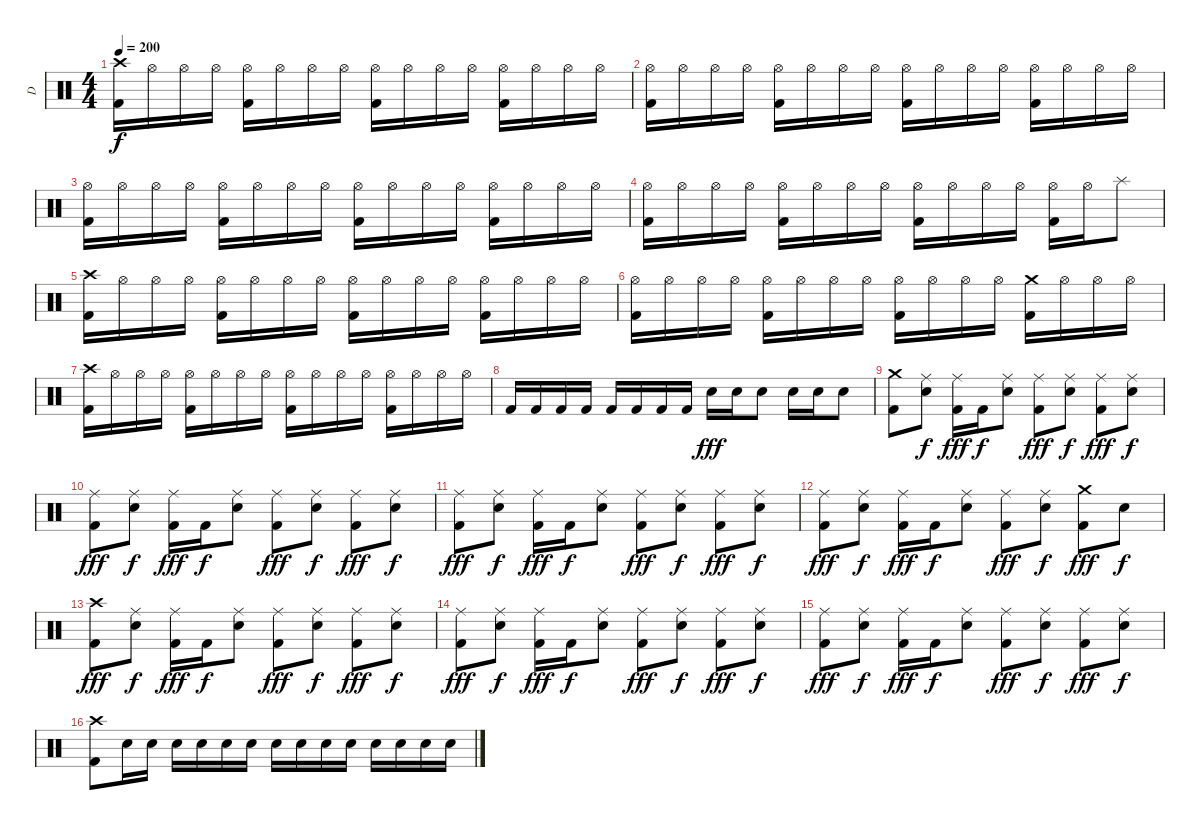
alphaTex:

\track ("D" "D") {instrument percussion}
\staff {score}
\articulation defaults
\ts (4 4)
\tempo 200
\clef neutral
\ks c
("Crash high (hit)" "Kick (hit) 2").16{dy f} "Hi-Hat (open)".16 "Hi-Hat (open)".16 "Hi-Hat (open)".16 ("Hi-Hat (open)" "Kick (hit) 2").16 "Hi-Hat (open)".16 "Hi-Hat (open)".16 "Hi-Hat (open)".16 ("Hi-Hat (open)" "Kick (hit) 2").16 "Hi-Hat (open)".16 "Hi-Hat (open)".16 "Hi-Hat (open)".16 ("Hi-Hat (open)" "Kick (hit) 2").16 "Hi-Hat (open)".16 "Hi-Hat (open)".16 "Hi-Hat (open)".16 |
("Hi-Hat (open)" "Kick (hit) 2").16 "Hi-Hat (open)".16 "Hi-Hat (open)".16 "Hi-Hat (open)".16 ("Hi-Hat (open)" "Kick (hit) 2").16 "Hi-Hat (open)".16 "Hi-Hat (open)".16 "Hi-Hat (open)".16 ("Hi-Hat (open)" "Kick (hit) 2").16 "Hi-Hat (open)".16 "Hi-Hat (open)".16 "Hi-Hat (open)".16 ("Hi-Hat (open)" "Kick (hit) 2").16 "Hi-Hat (open)".16 "Hi-Hat (open)".16 "Hi-Hat (open)".16 |
("Hi-Hat (open)" "Kick (hit) 2").16 "Hi-Hat (open)".16 "Hi-Hat (open)".16 "Hi-Hat (open)".16 ("Hi-Hat (open)" "Kick (hit) 2").16 "Hi-Hat (open)".16 "Hi-Hat (open)".16 "Hi-Hat (open)".16 ("Hi-Hat (open)" "Kick (hit) 2").16 "Hi-Hat (open)".16 "Hi-Hat (open)".16 "Hi-Hat (open)".16 ("Hi-Hat (open)" "Kick (hit) 2").16 "Hi-Hat (open)".16 "Hi-Hat (open)".16 "Hi-Hat (open)".16 |
("Hi-Hat (open)" "Kick (hit) 2").16 "Hi-Hat (open)".16 "Hi-Hat (open)".16 "Hi-Hat (open)".16 ("Hi-Hat (open)" "Kick (hit) 2").16 "Hi-Hat (open)".16 "Hi-Hat (open)".16 "Hi-Hat (open)".16 ("Hi-Hat (open)" "Kick (hit) 2").16 "Hi-Hat (open)".16 "Hi-Hat (open)".16 "Hi-Hat (open)".16 ("Hi-Hat (open)" "Kick (hit) 2").16 "Hi-Hat (open)".16 "Splash (hit)".8 |
("Crash high (hit)" "Kick (hit) 2").16 "Hi-Hat (open)".16 "Hi-Hat (open)".16 "Hi-Hat (open)".16 ("Hi-Hat (open)" "Kick (hit) 2").16 "Hi-Hat (open)".16 "Hi-Hat (open)".16 "Hi-Hat (open)".16 ("Hi-Hat (open)" "Kick (hit) 2").16 "Hi-Hat (open)".16 "Hi-Hat (open)".16 "Hi-Hat (open)".16 ("Hi-Hat (open)" "Kick (hit) 2").16 "Hi-Hat (open)".16 "Hi-Hat (open)".16 "Hi-Hat (open)".16 |
("Hi-Hat (open)" "Kick (hit) 2").16 "Hi-Hat (open)".16 "Hi-Hat (open)".16 "Hi-Hat (open)".16 ("Hi-Hat (open)" "Kick (hit) 2").16 "Hi-Hat (open)".16 "Hi-Hat (open)".16 "Hi-Hat (open)".16 ("Hi-Hat (open)" "Kick (hit) 2").16 "Hi-Hat (open)".16 "Hi-Hat (open)".16 "Hi-Hat (open)".16 ("Crash medium (hit)" "Kick (hit) 2").16 "Hi-Hat (open)".16 "Hi-Hat (open)".16 "Hi-Hat (open)".16 |
("Crash high (hit)" "Kick (hit) 2").16 "Hi-Hat (open)".16 "Hi-Hat (open)".16 "Hi-Hat (open)".16 ("Hi-Hat (open)" "Kick (hit) 2").16 "Hi-Hat (open)".16 "Hi-Hat (open)".16 "Hi-Hat (open)".16 ("Hi-Hat (open)" "Kick (hit) 2").16 "Hi-Hat (open)".16 "Hi-Hat (open)".16 "Hi-Hat (open)".16 ("Hi-Hat (open)" "Kick (hit) 2").16 "Hi-Hat (open)".16 "Hi-Hat (open)".16 "Hi-Hat (open)".16 |
"Kick (hit) 2".16 "Kick (hit) 2".16 "Kick (hit) 2".16 "Kick (hit) 2".16 "Kick (hit) 2".16 "Kick (hit) 2".16 "Kick (hit) 2".16 "Kick (hit) 2".16 "Electric Snare (hit)".16{dy fff} "Electric Snare (hit)".16 "Electric Snare (hit)".8 "Electric Snare (hit)".16 "Electric Snare (hit)".16 "Electric Snare (hit)".8 |
("Crash medium (hit)" "Kick (hit) 2").8 ("Ride (middle)" "Electric Snare (hit)").8{dy f} ("Ride (middle)" "Kick (hit) 2").16{dy fff} "Kick (hit) 2".16{dy f} ("Ride (middle)" "Electric Snare (hit)").8 ("Ride (middle)" "Kick (hit) 2").8{dy fff} ("Ride (middle)" "Electric Snare (hit)").8{dy f} ("Ride (middle)" "Kick (hit) 2").8{dy fff} ("Ride (middle)" "Electric Snare (hit)").8{dy f} |
("Ride (middle)" "Kick (hit) 2").8{dy fff} ("Ride (middle)" "Electric Snare (hit)").8{dy f} ("Ride (middle)" "Kick (hit) 2").16{dy fff} "Kick (hit) 2".16{dy f} ("Ride (middle)" "Electric Snare (hit)").8 ("Ride (middle)" "Kick (hit) 2").8{dy fff} ("Ride (middle)" "Electric Snare (hit)").8{dy f} ("Ride (middle)" "Kick (hit) 2").8{dy fff} ("Ride (middle)" "Electric Snare (hit)").8{dy f} |
("Ride (middle)" "Kick (hit) 2").8{dy fff} ("Ride (middle)" "Electric Snare (hit)").8{dy f} ("Ride (middle)" "Kick (hit) 2").16{dy fff} "Kick (hit) 2".16{dy f} ("Ride (middle)" "Electric Snare (hit)").8 ("Ride (middle)" "Kick (hit) 2").8{dy fff} ("Ride (middle)" "Electric Snare (hit)").8{dy f} ("Ride (middle)" "Kick (hit) 2").8{dy fff} ("Ride (middle)" "Electric Snare (hit)").8{dy f} |
("Ride (middle)" "Kick (hit) 2").8{dy fff} ("Ride (middle)" "Electric Snare (hit)").8{dy f} ("Ride (middle)" "Kick (hit) 2").16{dy fff} "Kick (hit) 2".16{dy f} ("Ride (middle)" "Electric Snare (hit)").8 ("Ride (middle)" "Kick (hit) 2").8{dy fff} ("Ride (middle)" "Electric Snare (hit)").8{dy f} ("Crash medium (hit)" "Kick (hit) 2").8{dy fff} "Electric Snare (hit)".8{dy f} |
("Crash high (hit)" "Kick (hit) 2").8{dy fff} ("Ride (middle)" "Electric Snare (hit)").8{dy f} ("Ride (middle)" "Kick (hit) 2").16{dy fff} "Kick (hit) 2".16{dy f} ("Ride (middle)" "Electric Snare (hit)").8 ("Ride (middle)" "Kick (hit) 2").8{dy fff} ("Ride (middle)" "Electric Snare (hit)").8{dy f} ("Ride (middle)" "Kick (hit) 2").8{dy fff} ("Ride (middle)" "Electric Snare (hit)").8{dy f} |
("Ride (middle)" "Kick (hit) 2").8{dy fff} ("Ride (middle)" "Electric Snare (hit)").8{dy f} ("Ride (middle)" "Kick (hit) 2").16{dy fff} "Kick (hit) 2".16{dy f} ("Ride (middle)" "Electric Snare (hit)").8 ("Ride (middle)" "Kick (hit) 2").8{dy fff} ("Ride (middle)" "Electric Snare (hit)").8{dy f} ("Ride (middle)" "Kick (hit) 2").8{dy fff} ("Ride (middle)" "Electric Snare (hit)").8{dy f} |
("Ride (middle)" "Kick (hit) 2").8{dy fff} ("Ride (middle)" "Electric Snare (hit)").8{dy f} ("Ride (middle)" "Kick (hit) 2").16{dy fff} "Kick (hit) 2".16{dy f} ("Ride (middle)" "Electric Snare (hit)").8 ("Ride (middle)" "Kick (hit) 2").8{dy fff} ("Ride (middle)" "Electric Snare (hit)").8{dy f} ("Ride (middle)" "Kick (hit) 2").8{dy fff} ("Ride (middle)" "Electric Snare (hit)").8{dy f} |
("Crash high (hit)" "Kick (hit) 2").8 "Electric Snare (hit)".16 "Electric Snare (hit)".16 "Electric Snare (hit)".16 "Electric Snare (hit)".16 "Electric Snare (hit)".16 "Electric Snare (hit)".16 "Electric Snare (hit)".16 "Electric Snare (hit)".16 "Electric Snare (hit)".16 "Electric Snare (hit)".16 "Electric Snare (hit)".16 "Electric Snare (hit)".16 "Electric Snare (hit)".16 "Electric Snare (hit)".16
